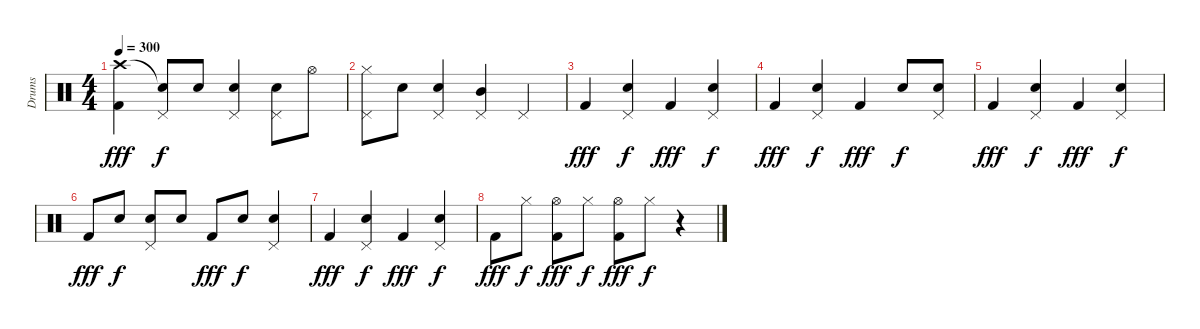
\track ("Drums" "Drums") {instrument percussion}
\staff {score}
\articulation defaults
\ts (4 4)
\tempo 300
\clef neutral
\ks c
("Crash high (hit)" "Kick (hit) 2").4{dy fff} ("Snare (hit)"{t} "Pedal Hi-Hat (hit)").8{dy f} "Snare (hit) 2".8 ("Snare (hit) 2" "Pedal Hi-Hat (hit)").4 ("Snare (hit) 2" "Pedal Hi-Hat (hit)").8 "Hi-Hat (open)".8 |
("Hi-Hat (closed)" "Pedal Hi-Hat (hit)").8 "Snare (hit) 2".8 ("Snare (hit) 2" "Pedal Hi-Hat (hit)").4 ("Mid Tom (hit)" "Pedal Hi-Hat (hit)").4 "Pedal Hi-Hat (hit)".4 |
"Kick (hit) 2".4{dy fff} ("Snare (hit) 2" "Pedal Hi-Hat (hit)").4{dy f} "Kick (hit) 2".4{dy fff} ("Snare (hit) 2" "Pedal Hi-Hat (hit)").4{dy f} |
"Kick (hit) 2".4{dy fff} ("Snare (hit) 2" "Pedal Hi-Hat (hit)").4{dy f} "Kick (hit) 2".4{dy fff} "Snare (hit) 2".8{dy f} ("Snare (hit) 2" "Pedal Hi-Hat (hit)").8 |
"Kick (hit) 2".4{dy fff} ("Snare (hit) 2" "Pedal Hi-Hat (hit)").4{dy f} "Kick (hit) 2".4{dy fff} ("Snare (hit) 2" "Pedal Hi-Hat (hit)").4{dy f} |
"Kick (hit) 2".8{dy fff} "Snare (hit) 2".8{dy f} ("Snare (hit) 2" "Pedal Hi-Hat (hit)").8 "Snare (hit) 2".8 "Kick (hit) 2".8{dy fff} "Snare (hit) 2".8{dy f} ("Snare (hit) 2" "Pedal Hi-Hat (hit)").4 |
"Kick (hit) 2".4{dy fff} ("Snare (hit) 2" "Pedal Hi-Hat (hit)").4{dy f} "Kick (hit) 2".4{dy fff} ("Snare (hit) 2" "Pedal Hi-Hat (hit)").4{dy f} |
"Kick (hit) 2".8{dy fff} "Hi-Hat (closed)".8{dy f} ("Hi-Hat (open)" "Kick (hit) 2").8{dy fff} "Hi-Hat (closed)".8{dy f} ("Hi-Hat (open)" "Kick (hit) 2").8{dy fff} "Hi-Hat (closed)".8{dy f} r.4
